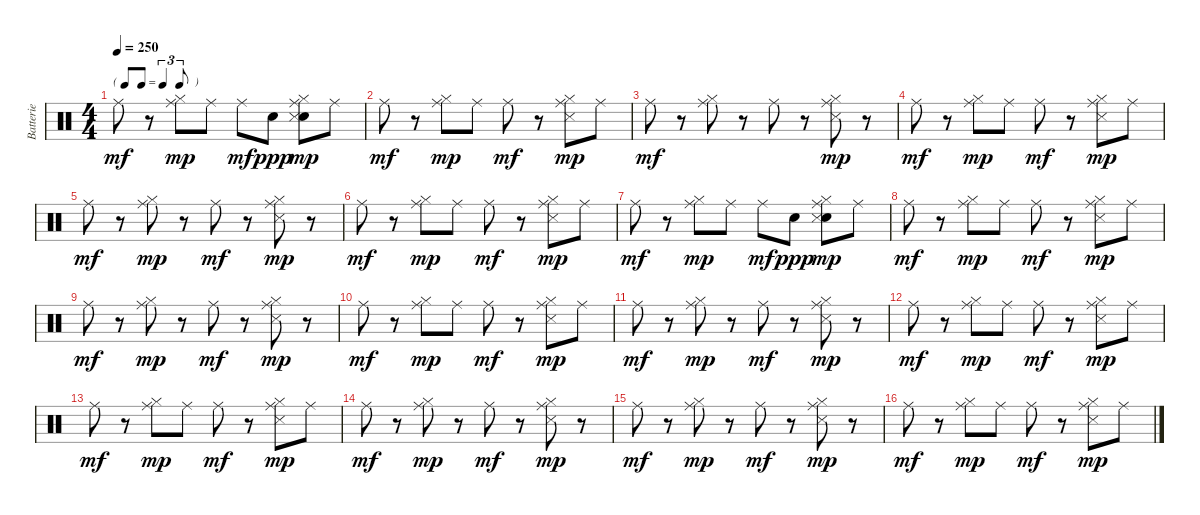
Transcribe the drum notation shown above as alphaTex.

\track ("Batterie" "Batterie") {instrument percussion}
\staff {score}
\articulation defaults
\ts (4 4)
\tf triplet8th
\tempo 250
\clef neutral
\ks c "Ride (middle)".8{dy mf}
r.8 ("Hi-Hat (closed)" "Ride (middle)").8{dy mp} "Ride (middle)".8 "Ride (middle)".8{dy mf} "Snare (hit) 2".8{dy ppp} ("Snare (hit) 2" "Hi-Hat (closed)" "Snare (side stick) 3" "Ride (middle)").8{dy mp} "Ride (middle)".8 |
"Ride (middle)".8{dy mf} r.8 ("Hi-Hat (closed)" "Ride (middle)").8{dy mp} "Ride (middle)".8 "Ride (middle)".8{dy mf} r.8 ("Hi-Hat (closed)" "Snare (side stick) 3" "Ride (middle)").8{dy mp} "Ride (middle)".8 |
"Ride (middle)".8{dy mf} r.8 ("Hi-Hat (closed)" "Ride (middle)").8 r.8 "Ride (middle)".8 r.8 ("Hi-Hat (closed)" "Snare (side stick) 3" "Ride (middle)").8{dy mp} r.8 |
"Ride (middle)".8{dy mf} r.8 ("Hi-Hat (closed)" "Ride (middle)").8{dy mp} "Ride (middle)".8 "Ride (middle)".8{dy mf} r.8 ("Hi-Hat (closed)" "Snare (side stick) 3" "Ride (middle)").8{dy mp} "Ride (middle)".8 |
"Ride (middle)".8{dy mf} r.8 ("Hi-Hat (closed)" "Ride (middle)").8{dy mp} r.8 "Ride (middle)".8{dy mf} r.8 ("Hi-Hat (closed)" "Snare (side stick) 3" "Ride (middle)").8{dy mp} r.8 |
"Ride (middle)".8{dy mf} r.8 ("Hi-Hat (closed)" "Ride (middle)").8{dy mp} "Ride (middle)".8 "Ride (middle)".8{dy mf} r.8 ("Hi-Hat (closed)" "Snare (side stick) 3" "Ride (middle)").8{dy mp} "Ride (middle)".8 |
"Ride (middle)".8{dy mf} r.8 ("Hi-Hat (closed)" "Ride (middle)").8{dy mp} "Ride (middle)".8 "Ride (middle)".8{dy mf} "Snare (hit) 2".8{dy ppp} ("Snare (hit) 2" "Hi-Hat (closed)" "Snare (side stick) 3" "Ride (middle)").8{dy mp} "Ride (middle)".8 |
"Ride (middle)".8{dy mf} r.8 ("Hi-Hat (closed)" "Ride (middle)").8{dy mp} "Ride (middle)".8 "Ride (middle)".8{dy mf} r.8 ("Hi-Hat (closed)" "Snare (side stick) 3" "Ride (middle)").8{dy mp} "Ride (middle)".8 |
"Ride (middle)".8{dy mf} r.8 ("Hi-Hat (closed)" "Ride (middle)").8{dy mp} r.8 "Ride (middle)".8{dy mf} r.8 ("Hi-Hat (closed)" "Snare (side stick) 3" "Ride (middle)").8{dy mp} r.8 |
"Ride (middle)".8{dy mf} r.8 ("Hi-Hat (closed)" "Ride (middle)").8{dy mp} "Ride (middle)".8 "Ride (middle)".8{dy mf} r.8 ("Hi-Hat (closed)" "Snare (side stick) 3" "Ride (middle)").8{dy mp} "Ride (middle)".8 |
"Ride (middle)".8{dy mf} r.8 ("Hi-Hat (closed)" "Ride (middle)").8{dy mp} r.8 "Ride (middle)".8{dy mf} r.8 ("Hi-Hat (closed)" "Snare (side stick) 3" "Ride (middle)").8{dy mp} r.8 |
"Ride (middle)".8{dy mf} r.8 ("Hi-Hat (closed)" "Ride (middle)").8{dy mp} "Ride (middle)".8 "Ride (middle)".8{dy mf} r.8 ("Hi-Hat (closed)" "Snare (side stick) 3" "Ride (middle)").8{dy mp} "Ride (middle)".8 |
"Ride (middle)".8{dy mf} r.8 ("Hi-Hat (closed)" "Ride (middle)").8{dy mp} "Ride (middle)".8 "Ride (middle)".8{dy mf} r.8 ("Hi-Hat (closed)" "Snare (side stick) 3" "Ride (middle)").8{dy mp} "Ride (middle)".8 |
"Ride (middle)".8{dy mf} r.8 ("Hi-Hat (closed)" "Ride (middle)").8{dy mp} r.8 "Ride (middle)".8{dy mf} r.8 ("Hi-Hat (closed)" "Snare (side stick) 3" "Ride (middle)").8{dy mp} r.8 |
"Ride (middle)".8{dy mf} r.8 ("Hi-Hat (closed)" "Ride (middle)").8{dy mp} r.8 "Ride (middle)".8{dy mf} r.8 ("Hi-Hat (closed)" "Snare (side stick) 3" "Ride (middle)").8{dy mp} r.8 |
"Ride (middle)".8{dy mf} r.8 ("Hi-Hat (closed)" "Ride (middle)").8{dy mp} "Ride (middle)".8 "Ride (middle)".8{dy mf} r.8 ("Hi-Hat (closed)" "Snare (side stick) 3" "Ride (middle)").8{dy mp} "Ride (middle)".8
